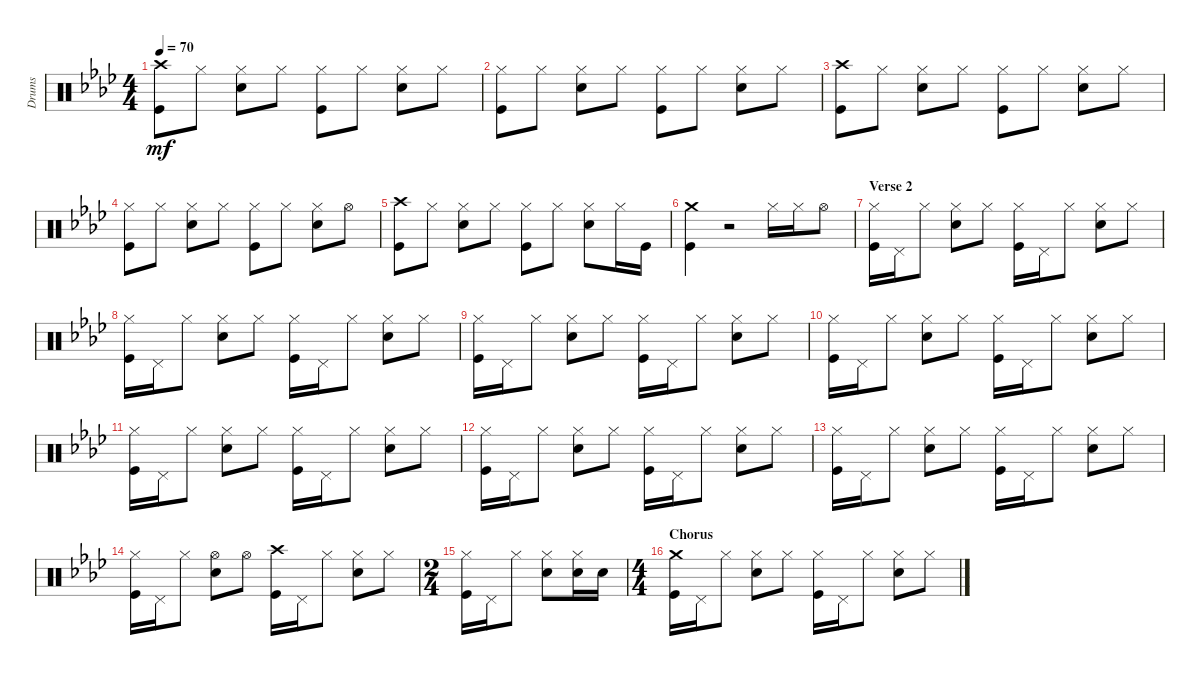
\track ("Drums" "Drums") {instrument percussion}
\staff {score}
\articulation defaults
\ts (4 4)
\tempo 70
\clef neutral
\ks ab
("Crash high (hit)" "Kick (hit)").8{dy mf} "Hi-Hat (closed)".8 ("Hi-Hat (closed)" "Electric Snare (hit)").8 "Hi-Hat (closed)".8 ("Hi-Hat (closed)" "Kick (hit)").8 "Hi-Hat (closed)".8 ("Hi-Hat (closed)" "Electric Snare (hit)").8 "Hi-Hat (closed)".8 |
("Hi-Hat (closed)" "Kick (hit)").8 "Hi-Hat (closed)".8 ("Hi-Hat (closed)" "Electric Snare (hit)").8 "Hi-Hat (closed)".8 ("Hi-Hat (closed)" "Kick (hit)").8 "Hi-Hat (closed)".8 ("Hi-Hat (closed)" "Electric Snare (hit)").8 "Hi-Hat (closed)".8 |
("Crash high (hit)" "Kick (hit)").8 "Hi-Hat (closed)".8 ("Hi-Hat (closed)" "Electric Snare (hit)").8 "Hi-Hat (closed)".8 ("Hi-Hat (closed)" "Kick (hit)").8 "Hi-Hat (closed)".8 ("Hi-Hat (closed)" "Electric Snare (hit)").8 "Hi-Hat (closed)".8 |
("Hi-Hat (closed)" "Kick (hit)").8 "Hi-Hat (closed)".8 ("Hi-Hat (closed)" "Electric Snare (hit)").8 "Hi-Hat (closed)".8 ("Hi-Hat (closed)" "Kick (hit)").8 "Hi-Hat (closed)".8 ("Hi-Hat (closed)" "Electric Snare (hit)").8 "Hi-Hat (open)".8 |
("Crash high (hit)" "Kick (hit)").8 "Hi-Hat (closed)".8 ("Hi-Hat (closed)" "Electric Snare (hit)").8 "Hi-Hat (closed)".8 ("Hi-Hat (closed)" "Kick (hit)").8 "Hi-Hat (closed)".8 ("Hi-Hat (closed)" "Electric Snare (hit)").8 "Hi-Hat (closed)".16 "Kick (hit)".16 |
("Crash medium (hit)" "Kick (hit)").4 r.2 "Hi-Hat (closed)".16 "Hi-Hat (closed)".16 "Hi-Hat (open)".8 |
\section ("" "Verse 2")
("Hi-Hat (closed)" "Kick (hit)").16 "Pedal Hi-Hat (hit)".16 "Hi-Hat (closed)".8 ("Hi-Hat (closed)" "Electric Snare (hit)").8 "Hi-Hat (closed)".8 ("Hi-Hat (closed)" "Kick (hit)").16 "Pedal Hi-Hat (hit)".16 "Hi-Hat (closed)".8 ("Hi-Hat (closed)" "Electric Snare (hit)").8 "Hi-Hat (closed)".8 |
("Hi-Hat (closed)" "Kick (hit)").16 "Pedal Hi-Hat (hit)".16 "Hi-Hat (closed)".8 ("Hi-Hat (closed)" "Electric Snare (hit)").8 "Hi-Hat (closed)".8 ("Hi-Hat (closed)" "Kick (hit)").16 "Pedal Hi-Hat (hit)".16 "Hi-Hat (closed)".8 ("Hi-Hat (closed)" "Electric Snare (hit)").8 "Hi-Hat (closed)".8 |
("Hi-Hat (closed)" "Kick (hit)").16 "Pedal Hi-Hat (hit)".16 "Hi-Hat (closed)".8 ("Hi-Hat (closed)" "Electric Snare (hit)").8 "Hi-Hat (closed)".8 ("Hi-Hat (closed)" "Kick (hit)").16 "Pedal Hi-Hat (hit)".16 "Hi-Hat (closed)".8 ("Hi-Hat (closed)" "Electric Snare (hit)").8 "Hi-Hat (closed)".8 |
("Hi-Hat (closed)" "Kick (hit)").16 "Pedal Hi-Hat (hit)".16 "Hi-Hat (closed)".8 ("Hi-Hat (closed)" "Electric Snare (hit)").8 "Hi-Hat (closed)".8 ("Hi-Hat (closed)" "Kick (hit)").16 "Pedal Hi-Hat (hit)".16 "Hi-Hat (closed)".8 ("Hi-Hat (closed)" "Electric Snare (hit)").8 "Hi-Hat (closed)".8 |
("Hi-Hat (closed)" "Kick (hit)").16 "Pedal Hi-Hat (hit)".16 "Hi-Hat (closed)".8 ("Hi-Hat (closed)" "Electric Snare (hit)").8 "Hi-Hat (closed)".8 ("Hi-Hat (closed)" "Kick (hit)").16 "Pedal Hi-Hat (hit)".16 "Hi-Hat (closed)".8 ("Hi-Hat (closed)" "Electric Snare (hit)").8 "Hi-Hat (closed)".8 |
("Hi-Hat (closed)" "Kick (hit)").16 "Pedal Hi-Hat (hit)".16 "Hi-Hat (closed)".8 ("Hi-Hat (closed)" "Electric Snare (hit)").8 "Hi-Hat (closed)".8 ("Hi-Hat (closed)" "Kick (hit)").16 "Pedal Hi-Hat (hit)".16 "Hi-Hat (closed)".8 ("Hi-Hat (closed)" "Electric Snare (hit)").8 "Hi-Hat (closed)".8 |
("Hi-Hat (closed)" "Kick (hit)").16 "Pedal Hi-Hat (hit)".16 "Hi-Hat (closed)".8 ("Hi-Hat (closed)" "Electric Snare (hit)").8 "Hi-Hat (closed)".8 ("Hi-Hat (closed)" "Kick (hit)").16 "Pedal Hi-Hat (hit)".16 "Hi-Hat (closed)".8 ("Hi-Hat (closed)" "Electric Snare (hit)").8 "Hi-Hat (closed)".8 |
("Hi-Hat (closed)" "Kick (hit)").16 "Pedal Hi-Hat (hit)".16 "Hi-Hat (closed)".8 ("Hi-Hat (open)" "Electric Snare (hit)").8 "Hi-Hat (open)".8 ("Crash high (hit)" "Kick (hit)").16 "Pedal Hi-Hat (hit)".16 "Hi-Hat (closed)".8 ("Hi-Hat (closed)" "Electric Snare (hit)").8 "Hi-Hat (closed)".8 |
\ts (2 4)
("Hi-Hat (closed)" "Kick (hit)").16 "Pedal Hi-Hat (hit)".16 "Hi-Hat (closed)".8 ("Hi-Hat (closed)" "Electric Snare (hit)").8 ("Hi-Hat (closed)" "Electric Snare (hit)").16 "Electric Snare (hit)".16 |
\ts (4 4)
\section ("" "Chorus")
("Crash medium (hit)" "Kick (hit)").16 "Pedal Hi-Hat (hit)".16 "Hi-Hat (closed)".8 ("Hi-Hat (closed)" "Electric Snare (hit)").8 "Hi-Hat (closed)".8 ("Hi-Hat (closed)" "Kick (hit)").16 "Pedal Hi-Hat (hit)".16 "Hi-Hat (closed)".8 ("Hi-Hat (closed)" "Electric Snare (hit)").8 "Hi-Hat (closed)".8
